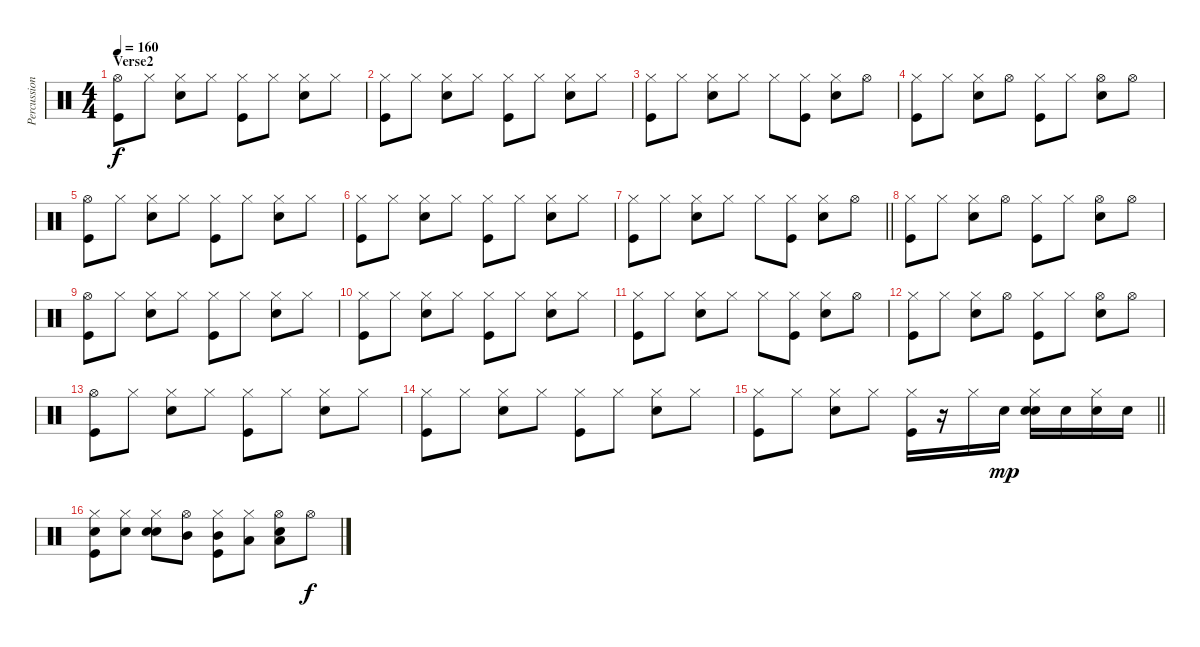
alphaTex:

\track ("Percussioni" "Percussion") {instrument percussion}
\staff {score}
\articulation defaults
\ts (4 4)
\section ("" "Verse2")
\tempo 160
\clef neutral
\ks c
("Hi-Hat (open)" "Kick (hit)").8{dy f} "Hi-Hat (closed)".8 ("Hi-Hat (closed)" "Snare (hit) 2").8 "Hi-Hat (closed)".8 ("Hi-Hat (closed)" "Kick (hit)").8 "Hi-Hat (closed)".8 ("Hi-Hat (closed)" "Snare (hit) 2").8 "Hi-Hat (closed)".8 |
("Hi-Hat (closed)" "Kick (hit)").8 "Hi-Hat (closed)".8 ("Hi-Hat (closed)" "Snare (hit) 2").8 "Hi-Hat (closed)".8 ("Hi-Hat (closed)" "Kick (hit)").8 "Hi-Hat (closed)".8 ("Hi-Hat (closed)" "Snare (hit) 2").8 "Hi-Hat (closed)".8 |
("Hi-Hat (closed)" "Kick (hit)").8 "Hi-Hat (closed)".8 ("Hi-Hat (closed)" "Snare (hit) 2").8 "Hi-Hat (closed)".8 "Hi-Hat (closed)".8 ("Hi-Hat (closed)" "Kick (hit)").8 ("Hi-Hat (closed)" "Snare (hit) 2").8 "Hi-Hat (open)".8 |
("Hi-Hat (closed)" "Kick (hit)").8 "Hi-Hat (closed)".8 ("Hi-Hat (closed)" "Snare (hit) 2").8 "Hi-Hat (open)".8 ("Hi-Hat (closed)" "Kick (hit)").8 "Hi-Hat (closed)".8 ("Hi-Hat (open)" "Snare (hit) 2").8 "Hi-Hat (open)".8 |
("Hi-Hat (open)" "Kick (hit)").8 "Hi-Hat (closed)".8 ("Hi-Hat (closed)" "Snare (hit) 2").8 "Hi-Hat (closed)".8 ("Hi-Hat (closed)" "Kick (hit)").8 "Hi-Hat (closed)".8 ("Hi-Hat (closed)" "Snare (hit) 2").8 "Hi-Hat (closed)".8 |
("Hi-Hat (closed)" "Kick (hit)").8 "Hi-Hat (closed)".8 ("Hi-Hat (closed)" "Snare (hit) 2").8 "Hi-Hat (closed)".8 ("Hi-Hat (closed)" "Kick (hit)").8 "Hi-Hat (closed)".8 ("Hi-Hat (closed)" "Snare (hit) 2").8 "Hi-Hat (closed)".8 |
\barLineRight lightlight
("Hi-Hat (closed)" "Kick (hit)").8 "Hi-Hat (closed)".8 ("Hi-Hat (closed)" "Snare (hit) 2").8 "Hi-Hat (closed)".8 "Hi-Hat (closed)".8 ("Hi-Hat (closed)" "Kick (hit)").8 ("Hi-Hat (closed)" "Snare (hit) 2").8 "Hi-Hat (open)".8 |
("Hi-Hat (closed)" "Kick (hit)").8 "Hi-Hat (closed)".8 ("Hi-Hat (closed)" "Snare (hit) 2").8 "Hi-Hat (open)".8 ("Hi-Hat (closed)" "Kick (hit)").8 "Hi-Hat (closed)".8 ("Hi-Hat (open)" "Snare (hit) 2").8 "Hi-Hat (open)".8 |
("Hi-Hat (open)" "Kick (hit)").8 "Hi-Hat (closed)".8 ("Hi-Hat (closed)" "Snare (hit) 2").8 "Hi-Hat (closed)".8 ("Hi-Hat (closed)" "Kick (hit)").8 "Hi-Hat (closed)".8 ("Hi-Hat (closed)" "Snare (hit) 2").8 "Hi-Hat (closed)".8 |
("Hi-Hat (closed)" "Kick (hit)").8 "Hi-Hat (closed)".8 ("Hi-Hat (closed)" "Snare (hit) 2").8 "Hi-Hat (closed)".8 ("Hi-Hat (closed)" "Kick (hit)").8 "Hi-Hat (closed)".8 ("Hi-Hat (closed)" "Snare (hit) 2").8 "Hi-Hat (closed)".8 |
("Hi-Hat (closed)" "Kick (hit)").8 "Hi-Hat (closed)".8 ("Hi-Hat (closed)" "Snare (hit) 2").8 "Hi-Hat (closed)".8 "Hi-Hat (closed)".8 ("Hi-Hat (closed)" "Kick (hit)").8 ("Hi-Hat (closed)" "Snare (hit) 2").8 "Hi-Hat (open)".8 |
("Hi-Hat (closed)" "Kick (hit)").8 "Hi-Hat (closed)".8 ("Hi-Hat (closed)" "Snare (hit) 2").8 "Hi-Hat (open)".8 ("Hi-Hat (closed)" "Kick (hit)").8 "Hi-Hat (closed)".8 ("Hi-Hat (open)" "Snare (hit) 2").8 "Hi-Hat (open)".8 |
("Hi-Hat (open)" "Kick (hit)").8 "Hi-Hat (closed)".8 ("Hi-Hat (closed)" "Snare (hit) 2").8 "Hi-Hat (closed)".8 ("Hi-Hat (closed)" "Kick (hit)").8 "Hi-Hat (closed)".8 ("Hi-Hat (closed)" "Snare (hit) 2").8 "Hi-Hat (closed)".8 |
("Hi-Hat (closed)" "Kick (hit)").8 "Hi-Hat (closed)".8 ("Hi-Hat (closed)" "Snare (hit) 2").8 "Hi-Hat (closed)".8 ("Hi-Hat (closed)" "Kick (hit)").8 "Hi-Hat (closed)".8 ("Hi-Hat (closed)" "Snare (hit) 2").8 "Hi-Hat (closed)".8 |
\barLineRight lightlight
("Hi-Hat (closed)" "Kick (hit)").8 "Hi-Hat (closed)".8 ("Hi-Hat (closed)" "Snare (hit) 2").8 "Hi-Hat (closed)".8 ("Hi-Hat (closed)" "Kick (hit)").16 r.16 "Hi-Hat (closed)".16 "Snare (hit) 2".16{dy mp} ("Snare (hit) 2" "Hi-Hat (closed)" "Snare (hit) 2").16 "Snare (hit) 2".16 ("Snare (hit) 2" "Hi-Hat (closed)").16 "Snare (hit) 2".16 |
("Snare (hit) 2" "Hi-Hat (closed)" "Kick (hit)").8 ("Snare (hit) 2" "Hi-Hat (closed)").8 ("Snare (hit) 2" "Hi-Hat (closed)" "Snare (hit) 2").8 ("Mid Tom (hit)" "Hi-Hat (open)").8 ("Mid Tom (hit)" "Hi-Hat (closed)" "Kick (hit)").8 ("Low Tom (hit)" "Hi-Hat (closed)").8 ("Low Tom (hit)" "Hi-Hat (open)" "Snare (hit) 2").8 "Hi-Hat (open)".8{dy f}
